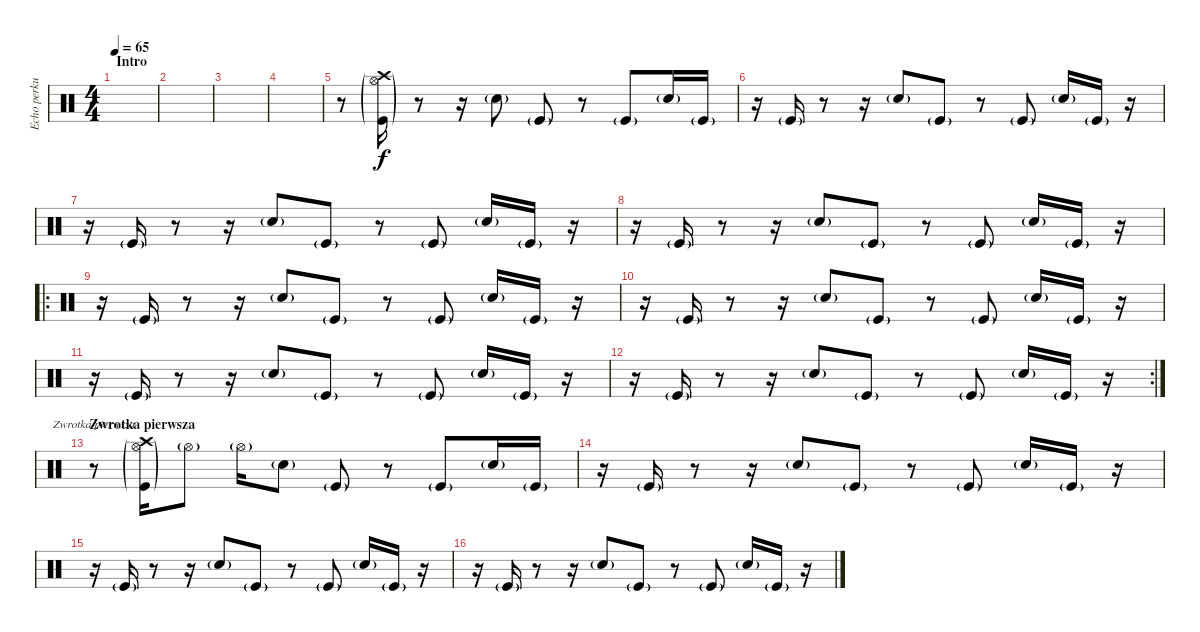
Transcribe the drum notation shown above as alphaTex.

\track ("Echo perkusji 2" "Echo perku") {instrument percussion}
\staff {score}
\articulation defaults
\chord ("Intro")
\chord ("Zwrotka pierwsza")
\ts (4 4)
\section ("" "Intro")
\tempo 65
\clef neutral
\ks c
|
|
|
|
r.8 ("Kick (hit)"{g} "Hi-Hat (open)"{g} "Crash high (hit)"{g}).16 r.8 r.16 "Snare (hit) 2"{g}.8 "Kick (hit)"{g}.8 r.8 "Kick (hit)"{g}.8 "Snare (hit) 2"{g}.16 "Kick (hit)"{g}.16 |
r.16 "Kick (hit)"{g}.16 r.8 r.16 "Snare (hit) 2"{g}.8 "Kick (hit)"{g}.8 r.8 "Kick (hit)"{g}.8 "Snare (hit) 2"{g}.16 "Kick (hit)"{g}.16 r.16 |
r.16 "Kick (hit)"{g}.16 r.8 r.16 "Snare (hit) 2"{g}.8 "Kick (hit)"{g}.8 r.8 "Kick (hit)"{g}.8 "Snare (hit) 2"{g}.16 "Kick (hit)"{g}.16 r.16 |
r.16 "Kick (hit)"{g}.16 r.8 r.16 "Snare (hit) 2"{g}.8 "Kick (hit)"{g}.8 r.8 "Kick (hit)"{g}.8 "Snare (hit) 2"{g}.16 "Kick (hit)"{g}.16 r.16 |
\ro
r.16 "Kick (hit)"{g}.16 r.8 r.16 "Snare (hit) 2"{g}.8 "Kick (hit)"{g}.8 r.8 "Kick (hit)"{g}.8 "Snare (hit) 2"{g}.16 "Kick (hit)"{g}.16 r.16 |
r.16 "Kick (hit)"{g}.16 r.8 r.16 "Snare (hit) 2"{g}.8 "Kick (hit)"{g}.8 r.8 "Kick (hit)"{g}.8 "Snare (hit) 2"{g}.16 "Kick (hit)"{g}.16 r.16 |
r.16 "Kick (hit)"{g}.16 r.8 r.16 "Snare (hit) 2"{g}.8 "Kick (hit)"{g}.8 r.8 "Kick (hit)"{g}.8 "Snare (hit) 2"{g}.16 "Kick (hit)"{g}.16 r.16 |
\rc 2
r.16 "Kick (hit)"{g}.16 r.8 r.16 "Snare (hit) 2"{g}.8 "Kick (hit)"{g}.8 r.8 "Kick (hit)"{g}.8 "Snare (hit) 2"{g}.16 "Kick (hit)"{g}.16 r.16 |
\section ("" "Zwrotka pierwsza")
r.8{ch "Zwrotka pierwsza"} ("Kick (hit)"{g} "Hi-Hat (open)"{g} "Crash high (hit)"{g}).16 "Hi-Hat (open)"{g}.8 "Hi-Hat (open)"{g}.16 "Snare (hit) 2"{g}.8 "Kick (hit)"{g}.8 r.8 "Kick (hit)"{g}.8 "Snare (hit) 2"{g}.16 "Kick (hit)"{g}.16 |
r.16 "Kick (hit)"{g}.16 r.8 r.16 "Snare (hit) 2"{g}.8 "Kick (hit)"{g}.8 r.8 "Kick (hit)"{g}.8 "Snare (hit) 2"{g}.16 "Kick (hit)"{g}.16 r.16 |
r.16 "Kick (hit)"{g}.16 r.8 r.16 "Snare (hit) 2"{g}.8 "Kick (hit)"{g}.8 r.8 "Kick (hit)"{g}.8 "Snare (hit) 2"{g}.16 "Kick (hit)"{g}.16 r.16 |
r.16 "Kick (hit)"{g}.16 r.8 r.16 "Snare (hit) 2"{g}.8 "Kick (hit)"{g}.8 r.8 "Kick (hit)"{g}.8 "Snare (hit) 2"{g}.16 "Kick (hit)"{g}.16 r.16
